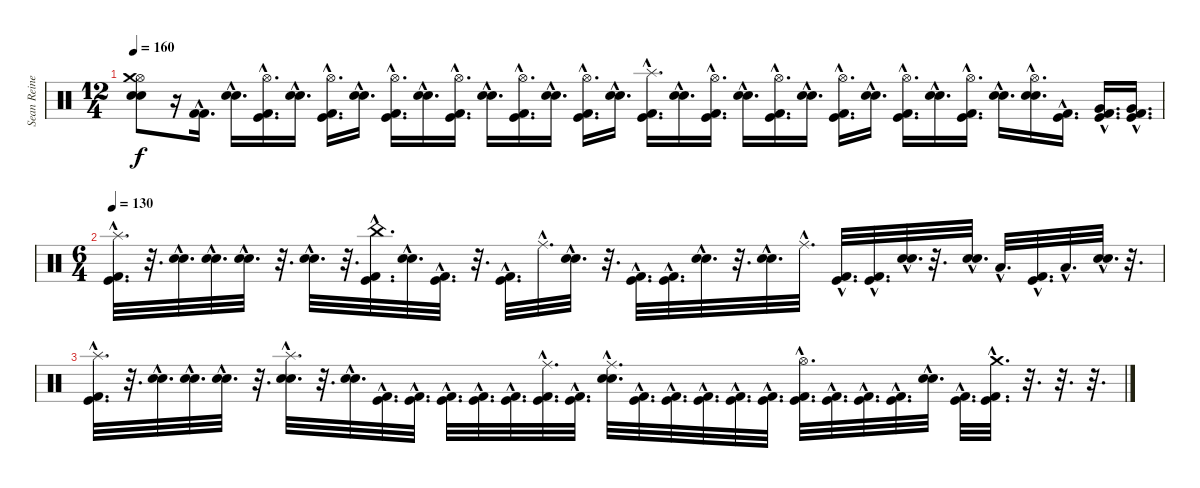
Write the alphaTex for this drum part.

\track ("Sean Reinert" "Sean Reine") {instrument percussion}
\staff {score}
\articulation defaults
\ts (12 4)
\tempo 160
\clef neutral
\ks c
("Hi-Hat (open)" "Crash medium (hit)" "Snare (hit) 2" "Electric Snare (hit)").8{dy f} r.16 ("Kick (hit) 2"{hac} "Kick (hit) 2"{hac}).16{d} ("Snare (hit) 2"{hac} "Electric Snare (hit)"{hac}).16{d} ("Hi-Hat (open)"{hac} "Kick (hit) 2"{hac} "Kick (hit)"{hac}).16{d} ("Snare (hit) 2"{hac} "Electric Snare (hit)"{hac}).16{d} ("Hi-Hat (open)"{hac} "Kick (hit) 2"{hac} "Kick (hit)"{hac}).16{d} ("Snare (hit) 2"{hac} "Electric Snare (hit)"{hac}).16{d} ("Hi-Hat (open)"{hac} "Kick (hit) 2"{hac} "Kick (hit)"{hac}).16{d} ("Snare (hit) 2"{hac} "Electric Snare (hit)"{hac}).16{d} ("Hi-Hat (open)"{hac} "Kick (hit) 2"{hac} "Kick (hit)"{hac}).16{d} ("Snare (hit) 2"{hac} "Electric Snare (hit)"{hac}).16{d} ("Hi-Hat (open)"{hac} "Kick (hit) 2"{hac} "Kick (hit)"{hac}).16{d} ("Snare (hit) 2"{hac} "Electric Snare (hit)"{hac}).16{d} ("Hi-Hat (open)"{hac} "Kick (hit) 2"{hac} "Kick (hit)"{hac}).16{d} ("Snare (hit) 2"{hac} "Electric Snare (hit)"{hac}).16{d} ("Splash (hit)"{hac} "Kick (hit) 2"{hac} "Kick (hit)"{hac}).16{d} ("Snare (hit) 2"{hac} "Electric Snare (hit)"{hac}).16{d} ("Hi-Hat (open)"{hac} "Kick (hit) 2"{hac} "Kick (hit)"{hac}).16{d} ("Snare (hit) 2"{hac} "Electric Snare (hit)"{hac}).16{d} ("Hi-Hat (open)"{hac} "Kick (hit) 2"{hac} "Kick (hit)"{hac}).16{d} ("Snare (hit) 2"{hac} "Electric Snare (hit)"{hac}).16{d} ("Hi-Hat (open)"{hac} "Kick (hit) 2"{hac} "Kick (hit)"{hac}).16{d} ("Snare (hit) 2"{hac} "Electric Snare (hit)"{hac}).16{d} ("Hi-Hat (open)"{hac} "Kick (hit) 2"{hac} "Kick (hit)"{hac}).16{d} ("Snare (hit) 2"{hac} "Electric Snare (hit)"{hac}).16{d} ("Hi-Hat (open)"{hac} "Kick (hit) 2"{hac} "Kick (hit)"{hac}).16{d} ("Snare (hit) 2"{hac} "Electric Snare (hit)"{hac}).16{d} ("Hi-Hat (open)"{hac} "Snare (hit) 2"{hac} "Electric Snare (hit)"{hac}).16{d} ("Kick (hit) 2"{hac} "Kick (hit)"{hac}).16{d} ("Very Low Tom (hit)"{hac} "Kick (hit) 2"{hac} "Kick (hit)"{hac}).16{d} ("Very Low Tom (hit)"{hac} "Kick (hit) 2"{hac} "Kick (hit)"{hac}).16{d} |
\ts (6 4)
\tempo 130
("Splash (hit)"{hac} "Kick (hit) 2"{hac} "Kick (hit)"{hac}).32{d} r.32{d} ("Snare (hit) 2"{hac} "Electric Snare (hit)"{hac}).32{d} ("Snare (hit) 2"{hac} "Electric Snare (hit)"{hac}).32{d} ("Snare (hit) 2"{hac} "Electric Snare (hit)"{hac}).32{d} r.32{d} ("Snare (hit) 2"{hac} "Electric Snare (hit)"{hac}).32{d} r.32{d} ("China (hit)"{hac} "Kick (hit) 2"{hac} "Kick (hit)"{hac}).32{d} ("Snare (hit) 2"{hac} "Electric Snare (hit)"{hac}).32{d} ("Kick (hit) 2"{hac} "Kick (hit)"{hac}).32{d} r.32{d} ("Kick (hit) 2"{hac} "Kick (hit)"{hac}).32{d} "Ride (middle)"{hac}.32{d} ("Snare (hit) 2"{hac} "Electric Snare (hit)"{hac}).32{d} r.32{d} ("Kick (hit) 2"{hac} "Kick (hit)"{hac}).32{d} ("Kick (hit) 2"{hac} "Kick (hit)"{hac}).32{d} ("Snare (hit) 2"{hac} "Electric Snare (hit)"{hac}).32{d} r.32{d} ("Snare (hit) 2"{hac} "Electric Snare (hit)"{hac}).32{d} "Ride (middle)"{hac}.32{d} ("Kick (hit) 2"{hac} "Kick (hit)"{hac}).32{d} ("Kick (hit) 2"{hac} "Kick (hit)"{hac}).32{d} ("Snare (hit) 2"{hac} "Electric Snare (hit)"{hac}).32{d} r.32{d} ("Snare (hit) 2"{hac} "Electric Snare (hit)"{hac}).32{d} "Low Tom (hit)"{hac}.32{d} ("Kick (hit) 2"{hac} "Kick (hit)"{hac}).32{d} "Low Tom (hit)"{hac}.32{d} ("Snare (hit) 2"{hac} "Electric Snare (hit)"{hac}).32{d} r.32{d} |
("Splash (hit)"{hac} "Kick (hit) 2"{hac} "Kick (hit)"{hac}).32{d} r.32{d} ("Snare (hit) 2"{hac} "Electric Snare (hit)"{hac}).32{d} ("Snare (hit) 2"{hac} "Electric Snare (hit)"{hac}).32{d} ("Snare (hit) 2"{hac} "Electric Snare (hit)"{hac}).32{d} r.32{d} ("Splash (hit)"{hac} "Snare (hit) 2"{hac} "Electric Snare (hit)"{hac}).32{d} r.32{d} ("Electric Snare (hit)"{hac} "Snare (hit) 2"{hac}).32{d} ("Kick (hit) 2"{hac} "Kick (hit)"{hac}).32{d} ("Kick (hit) 2"{hac} "Kick (hit)"{hac}).32{d} ("Kick (hit) 2"{hac} "Kick (hit)"{hac}).32{d} ("Kick (hit) 2"{hac} "Kick (hit)"{hac}).32{d} ("Kick (hit) 2"{hac} "Kick (hit)"{hac}).32{d} ("Ride (middle)"{hac} "Kick (hit) 2"{hac} "Kick (hit)"{hac}).32{d} ("Kick (hit) 2"{hac} "Kick (hit)"{hac}).32{d} ("Ride (middle)"{hac} "Electric Snare (hit)"{hac} "Snare (hit) 2"{hac}).32{d} ("Kick (hit) 2"{hac} "Kick (hit)"{hac}).32{d} ("Kick (hit) 2"{hac} "Kick (hit)"{hac}).32{d} ("Kick (hit) 2"{hac} "Kick (hit)"{hac}).32{d} ("Kick (hit) 2"{hac} "Kick (hit)"{hac}).32{d} ("Kick (hit) 2"{hac} "Kick (hit)"{hac}).32{d} ("Hi-Hat (open)"{hac} "Kick (hit) 2"{hac} "Kick (hit)"{hac}).32{d} ("Kick (hit) 2"{hac} "Kick (hit)"{hac}).32{d} ("Kick (hit) 2"{hac} "Kick (hit)"{hac}).32{d} ("Kick (hit) 2"{hac} "Kick (hit)"{hac}).32{d} ("Snare (hit) 2"{hac} "Electric Snare (hit)"{hac}).32{d} ("Kick (hit)"{hac} "Kick (hit) 2"{hac}).32{d} ("Crash medium (hit)"{hac} "Kick (hit)"{hac} "Kick (hit) 2"{hac}).32{d} r.32{d} r.32{d} r.32{d}
